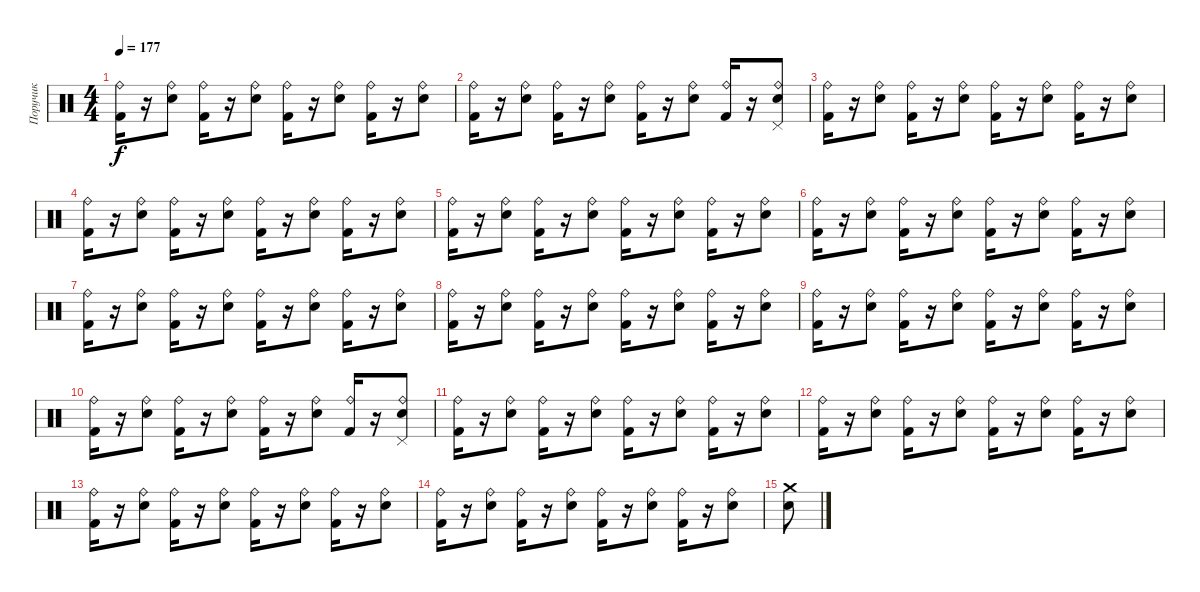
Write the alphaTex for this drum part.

\track ("Поручик" "Поручик") {instrument percussion}
\staff {score}
\articulation defaults
\ts (4 4)
\tempo 177
\clef neutral
\ks c
("Ride (bell)" "Kick (hit) 2").16{dy f} r.16 ("Ride (bell)" "Snare (hit) 2").8 ("Ride (bell)" "Kick (hit) 2").16 r.16 ("Ride (bell)" "Snare (hit) 2").8 ("Ride (bell)" "Kick (hit) 2").16 r.16 ("Ride (bell)" "Snare (hit) 2").8 ("Ride (bell)" "Kick (hit) 2").16 r.16 ("Ride (bell)" "Snare (hit) 2").8 |
("Ride (bell)" "Kick (hit) 2").16 r.16 ("Ride (bell)" "Snare (hit) 2").8 ("Ride (bell)" "Kick (hit) 2").16 r.16 ("Ride (bell)" "Snare (hit) 2").8 ("Ride (bell)" "Kick (hit) 2").16 r.16 ("Ride (bell)" "Snare (hit) 2").8 ("Ride (bell)" "Kick (hit) 2").16 r.16 ("Ride (bell)" "Snare (hit) 2" "Pedal Hi-Hat (hit)").8 |
("Ride (bell)" "Kick (hit) 2").16 r.16 ("Ride (bell)" "Snare (hit) 2").8 ("Ride (bell)" "Kick (hit) 2").16 r.16 ("Ride (bell)" "Snare (hit) 2").8 ("Ride (bell)" "Kick (hit) 2").16 r.16 ("Ride (bell)" "Snare (hit) 2").8 ("Ride (bell)" "Kick (hit) 2").16 r.16 ("Ride (bell)" "Snare (hit) 2").8 |
("Ride (bell)" "Kick (hit) 2").16 r.16 ("Ride (bell)" "Snare (hit) 2").8 ("Ride (bell)" "Kick (hit) 2").16 r.16 ("Ride (bell)" "Snare (hit) 2").8 ("Ride (bell)" "Kick (hit) 2").16 r.16 ("Ride (bell)" "Snare (hit) 2").8 ("Ride (bell)" "Kick (hit) 2").16 r.16 ("Ride (bell)" "Snare (hit) 2").8 |
("Ride (bell)" "Kick (hit) 2").16 r.16 ("Ride (bell)" "Snare (hit) 2").8 ("Ride (bell)" "Kick (hit) 2").16 r.16 ("Ride (bell)" "Snare (hit) 2").8 ("Ride (bell)" "Kick (hit) 2").16 r.16 ("Ride (bell)" "Snare (hit) 2").8 ("Ride (bell)" "Kick (hit) 2").16 r.16 ("Ride (bell)" "Snare (hit) 2").8 |
("Ride (bell)" "Kick (hit) 2").16 r.16 ("Ride (bell)" "Snare (hit) 2").8 ("Ride (bell)" "Kick (hit) 2").16 r.16 ("Ride (bell)" "Snare (hit) 2").8 ("Ride (bell)" "Kick (hit) 2").16 r.16 ("Ride (bell)" "Snare (hit) 2").8 ("Ride (bell)" "Kick (hit) 2").16 r.16 ("Ride (bell)" "Snare (hit) 2").8 |
("Ride (bell)" "Kick (hit) 2").16 r.16 ("Ride (bell)" "Snare (hit) 2").8 ("Ride (bell)" "Kick (hit) 2").16 r.16 ("Ride (bell)" "Snare (hit) 2").8 ("Ride (bell)" "Kick (hit) 2").16 r.16 ("Ride (bell)" "Snare (hit) 2").8 ("Ride (bell)" "Kick (hit) 2").16 r.16 ("Ride (bell)" "Snare (hit) 2").8 |
("Ride (bell)" "Kick (hit) 2").16 r.16 ("Ride (bell)" "Snare (hit) 2").8 ("Ride (bell)" "Kick (hit) 2").16 r.16 ("Ride (bell)" "Snare (hit) 2").8 ("Ride (bell)" "Kick (hit) 2").16 r.16 ("Ride (bell)" "Snare (hit) 2").8 ("Ride (bell)" "Kick (hit) 2").16 r.16 ("Ride (bell)" "Snare (hit) 2").8 |
("Ride (bell)" "Kick (hit) 2").16 r.16 ("Ride (bell)" "Snare (hit) 2").8 ("Ride (bell)" "Kick (hit) 2").16 r.16 ("Ride (bell)" "Snare (hit) 2").8 ("Ride (bell)" "Kick (hit) 2").16 r.16 ("Ride (bell)" "Snare (hit) 2").8 ("Ride (bell)" "Kick (hit) 2").16 r.16 ("Ride (bell)" "Snare (hit) 2").8 |
("Ride (bell)" "Kick (hit) 2").16 r.16 ("Ride (bell)" "Snare (hit) 2").8 ("Ride (bell)" "Kick (hit) 2").16 r.16 ("Ride (bell)" "Snare (hit) 2").8 ("Ride (bell)" "Kick (hit) 2").16 r.16 ("Ride (bell)" "Snare (hit) 2").8 ("Ride (bell)" "Kick (hit) 2").16 r.16 ("Ride (bell)" "Snare (hit) 2" "Pedal Hi-Hat (hit)").8 |
("Ride (bell)" "Kick (hit) 2").16 r.16 ("Ride (bell)" "Snare (hit) 2").8 ("Ride (bell)" "Kick (hit) 2").16 r.16 ("Ride (bell)" "Snare (hit) 2").8 ("Ride (bell)" "Kick (hit) 2").16 r.16 ("Ride (bell)" "Snare (hit) 2").8 ("Ride (bell)" "Kick (hit) 2").16 r.16 ("Ride (bell)" "Snare (hit) 2").8 |
("Ride (bell)" "Kick (hit) 2").16 r.16 ("Ride (bell)" "Snare (hit) 2").8 ("Ride (bell)" "Kick (hit) 2").16 r.16 ("Ride (bell)" "Snare (hit) 2").8 ("Ride (bell)" "Kick (hit) 2").16 r.16 ("Ride (bell)" "Snare (hit) 2").8 ("Ride (bell)" "Kick (hit) 2").16 r.16 ("Ride (bell)" "Snare (hit) 2").8 |
("Ride (bell)" "Kick (hit) 2").16 r.16 ("Ride (bell)" "Snare (hit) 2").8 ("Ride (bell)" "Kick (hit) 2").16 r.16 ("Ride (bell)" "Snare (hit) 2").8 ("Ride (bell)" "Kick (hit) 2").16 r.16 ("Ride (bell)" "Snare (hit) 2").8 ("Ride (bell)" "Kick (hit) 2").16 r.16 ("Ride (bell)" "Snare (hit) 2").8 |
("Ride (bell)" "Kick (hit) 2").16 r.16 ("Ride (bell)" "Snare (hit) 2").8 ("Ride (bell)" "Kick (hit) 2").16 r.16 ("Ride (bell)" "Snare (hit) 2").8 ("Ride (bell)" "Kick (hit) 2").16 r.16 ("Ride (bell)" "Snare (hit) 2").8 ("Ride (bell)" "Kick (hit) 2").16 r.16 ("Ride (bell)" "Snare (hit) 2").8 |
("Crash medium (hit)" "Snare (hit) 2").8
